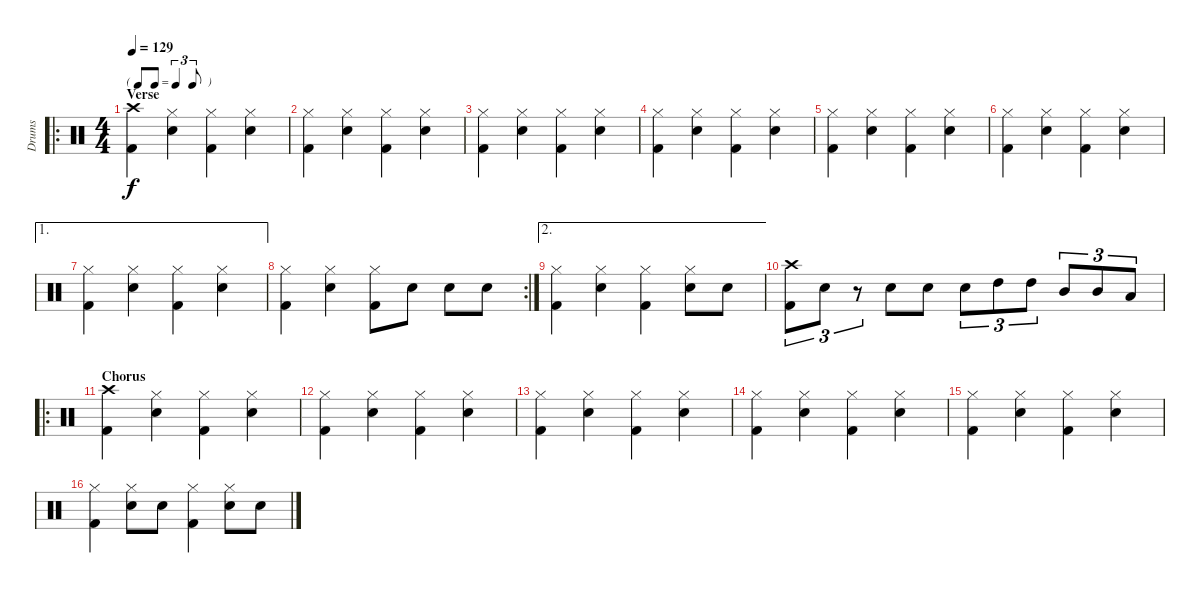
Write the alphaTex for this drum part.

\track ("Drums" "Drums") {instrument percussion}
\staff {score}
\articulation defaults
\ro
\ts (4 4)
\tf triplet8th
\section ("" "Verse")
\tempo 129
\clef neutral
\ks c
("Kick (hit) 2" "Crash high (hit)").4{dy f} ("Snare (hit) 2" "Hi-Hat (closed)").4 ("Kick (hit) 2" "Hi-Hat (closed)").4 ("Snare (hit) 2" "Hi-Hat (closed)").4 |
("Kick (hit) 2" "Hi-Hat (closed)").4 ("Snare (hit) 2" "Hi-Hat (closed)").4 ("Kick (hit) 2" "Hi-Hat (closed)").4 ("Snare (hit) 2" "Hi-Hat (closed)").4 |
("Kick (hit) 2" "Hi-Hat (closed)").4 ("Snare (hit) 2" "Hi-Hat (closed)").4 ("Kick (hit) 2" "Hi-Hat (closed)").4 ("Snare (hit) 2" "Hi-Hat (closed)").4 |
("Kick (hit) 2" "Hi-Hat (closed)").4 ("Snare (hit) 2" "Hi-Hat (closed)").4 ("Kick (hit) 2" "Hi-Hat (closed)").4 ("Snare (hit) 2" "Hi-Hat (closed)").4 |
("Kick (hit) 2" "Hi-Hat (closed)").4 ("Snare (hit) 2" "Hi-Hat (closed)").4 ("Kick (hit) 2" "Hi-Hat (closed)").4 ("Snare (hit) 2" "Hi-Hat (closed)").4 |
("Kick (hit) 2" "Hi-Hat (closed)").4 ("Snare (hit) 2" "Hi-Hat (closed)").4 ("Kick (hit) 2" "Hi-Hat (closed)").4 ("Snare (hit) 2" "Hi-Hat (closed)").4 |
\ae 1
("Kick (hit) 2" "Hi-Hat (closed)").4 ("Snare (hit) 2" "Hi-Hat (closed)").4 ("Kick (hit) 2" "Hi-Hat (closed)").4 ("Snare (hit) 2" "Hi-Hat (closed)").4 |
\rc 2
("Kick (hit) 2" "Hi-Hat (closed)").4 ("Snare (hit) 2" "Hi-Hat (closed)").4 ("Kick (hit) 2" "Hi-Hat (closed)").8 "Snare (hit) 2".8 "Snare (hit) 2".8 "Snare (hit) 2".8 |
\ae 2
("Kick (hit) 2" "Hi-Hat (closed)").4 ("Snare (hit) 2" "Hi-Hat (closed)").4 ("Kick (hit) 2" "Hi-Hat (closed)").4 ("Snare (hit) 2" "Hi-Hat (closed)").8 "Snare (hit) 2".8 |
("Kick (hit) 2" "Crash high (hit)").8{tu (3 2)} "Snare (hit) 2".8{tu (3 2)} r.8{tu (3 2)} "Snare (hit) 2".8 "Snare (hit) 2".8 "Snare (hit) 2".8{tu (3 2)} "High Tom (hit)".8{tu (3 2)} "High Tom (hit)".8{tu (3 2)} "Mid Tom (hit)".8{tu (3 2)} "Mid Tom (hit)".8{tu (3 2)} "Low Tom (hit)".8{tu (3 2)} |
\ro
\section ("" "Chorus")
("Kick (hit) 2" "Crash high (hit)").4 ("Snare (hit) 2" "Hi-Hat (closed)").4 ("Kick (hit) 2" "Hi-Hat (closed)").4 ("Snare (hit) 2" "Hi-Hat (closed)").4 |
("Kick (hit) 2" "Hi-Hat (closed)").4 ("Snare (hit) 2" "Hi-Hat (closed)").4 ("Kick (hit) 2" "Hi-Hat (closed)").4 ("Snare (hit) 2" "Hi-Hat (closed)").4 |
("Kick (hit) 2" "Hi-Hat (closed)").4 ("Snare (hit) 2" "Hi-Hat (closed)").4 ("Kick (hit) 2" "Hi-Hat (closed)").4 ("Snare (hit) 2" "Hi-Hat (closed)").4 |
("Kick (hit) 2" "Hi-Hat (closed)").4 ("Snare (hit) 2" "Hi-Hat (closed)").4 ("Kick (hit) 2" "Hi-Hat (closed)").4 ("Snare (hit) 2" "Hi-Hat (closed)").4 |
("Kick (hit) 2" "Hi-Hat (closed)").4 ("Snare (hit) 2" "Hi-Hat (closed)").4 ("Kick (hit) 2" "Hi-Hat (closed)").4 ("Snare (hit) 2" "Hi-Hat (closed)").4 |
("Kick (hit) 2" "Hi-Hat (closed)").4 ("Snare (hit) 2" "Hi-Hat (closed)").8 "Snare (hit) 2".8 ("Kick (hit) 2" "Hi-Hat (closed)").4 ("Snare (hit) 2" "Hi-Hat (closed)").8 "Snare (hit) 2".8
